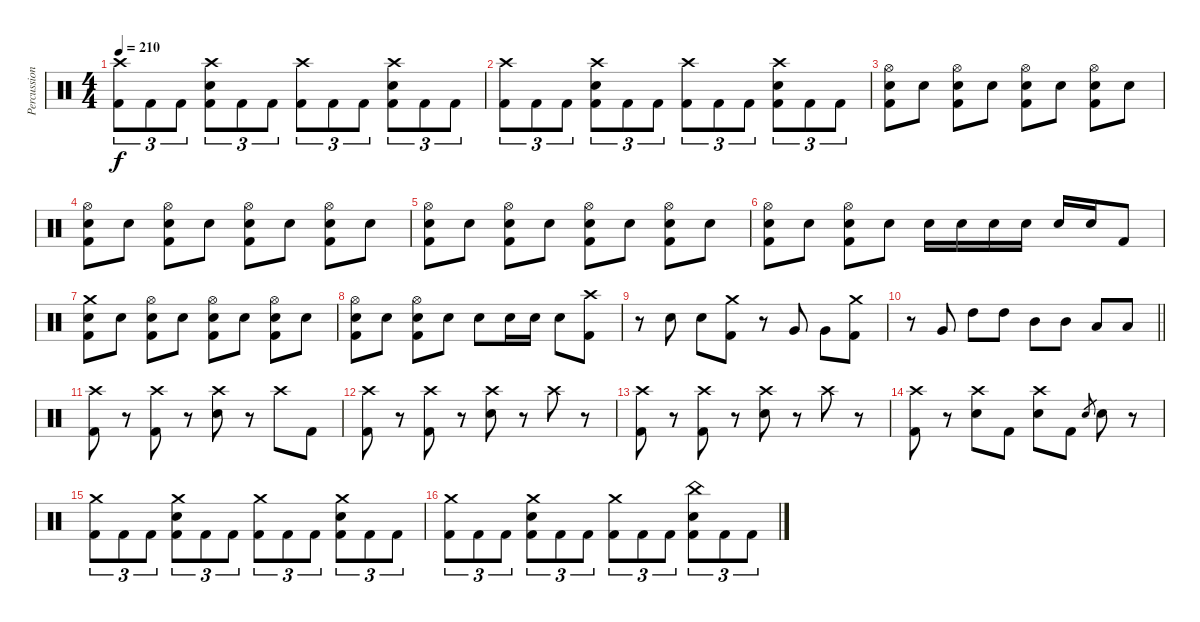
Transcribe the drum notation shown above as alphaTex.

\track ("Percussion" "Percussion") {instrument percussion}
\staff {score}
\articulation defaults
\ts (4 4)
\tempo 210
\clef neutral
\ks c
("Crash high (hit)" "Kick (hit) 2").8{tu (3 2) dy f} "Kick (hit) 2".8{tu (3 2)} "Kick (hit) 2".8{tu (3 2)} ("Crash high (hit)" "Snare (hit) 2" "Kick (hit) 2").8{tu (3 2)} "Kick (hit) 2".8{tu (3 2)} "Kick (hit) 2".8{tu (3 2)} ("Crash high (hit)" "Kick (hit) 2").8{tu (3 2)} "Kick (hit) 2".8{tu (3 2)} "Kick (hit) 2".8{tu (3 2)} ("Crash high (hit)" "Snare (hit) 2" "Kick (hit) 2").8{tu (3 2)} "Kick (hit) 2".8{tu (3 2)} "Kick (hit) 2".8{tu (3 2)} |
("Crash high (hit)" "Kick (hit) 2").8{tu (3 2)} "Kick (hit) 2".8{tu (3 2)} "Kick (hit) 2".8{tu (3 2)} ("Crash high (hit)" "Snare (hit) 2" "Kick (hit) 2").8{tu (3 2)} "Kick (hit) 2".8{tu (3 2)} "Kick (hit) 2".8{tu (3 2)} ("Crash high (hit)" "Kick (hit) 2").8{tu (3 2)} "Kick (hit) 2".8{tu (3 2)} "Kick (hit) 2".8{tu (3 2)} ("Crash high (hit)" "Snare (hit) 2" "Kick (hit) 2").8{tu (3 2)} "Kick (hit) 2".8{tu (3 2)} "Kick (hit) 2".8{tu (3 2)} |
("Hi-Hat (open)" "Snare (hit) 2" "Kick (hit) 2").8 "Snare (hit) 2".8 ("Hi-Hat (open)" "Snare (hit) 2" "Kick (hit) 2").8 "Snare (hit) 2".8 ("Hi-Hat (open)" "Snare (hit) 2" "Kick (hit) 2").8 "Snare (hit) 2".8 ("Hi-Hat (open)" "Snare (hit) 2" "Kick (hit) 2").8 "Snare (hit) 2".8 |
("Hi-Hat (open)" "Snare (hit) 2" "Kick (hit) 2").8 "Snare (hit) 2".8 ("Hi-Hat (open)" "Snare (hit) 2" "Kick (hit) 2").8 "Snare (hit) 2".8 ("Hi-Hat (open)" "Snare (hit) 2" "Kick (hit) 2").8 "Snare (hit) 2".8 ("Hi-Hat (open)" "Snare (hit) 2" "Kick (hit) 2").8 "Snare (hit) 2".8 |
("Hi-Hat (open)" "Snare (hit) 2" "Kick (hit) 2").8 "Snare (hit) 2".8 ("Hi-Hat (open)" "Snare (hit) 2" "Kick (hit) 2").8 "Snare (hit) 2".8 ("Hi-Hat (open)" "Snare (hit) 2" "Kick (hit) 2").8 "Snare (hit) 2".8 ("Hi-Hat (open)" "Snare (hit) 2" "Kick (hit) 2").8 "Snare (hit) 2".8 |
("Hi-Hat (open)" "Snare (hit) 2" "Kick (hit) 2").8 "Snare (hit) 2".8 ("Hi-Hat (open)" "Snare (hit) 2" "Kick (hit) 2").8 "Snare (hit) 2".8 "Snare (hit) 2".16 "Snare (hit) 2".16 "Snare (hit) 2".16 "Snare (hit) 2".16 "Snare (hit) 2".16 "Snare (hit) 2".16 "Kick (hit) 2".8 |
("Crash medium (hit)" "Snare (hit) 2" "Kick (hit) 2").8 "Snare (hit) 2".8 ("Hi-Hat (open)" "Snare (hit) 2" "Kick (hit) 2").8 "Snare (hit) 2".8 ("Hi-Hat (open)" "Snare (hit) 2" "Kick (hit) 2").8 "Snare (hit) 2".8 ("Hi-Hat (open)" "Snare (hit) 2" "Kick (hit) 2").8 "Snare (hit) 2".8 |
("Hi-Hat (open)" "Snare (hit) 2" "Kick (hit) 2").8 "Snare (hit) 2".8 ("Hi-Hat (open)" "Snare (hit) 2" "Kick (hit) 2").8 "Snare (hit) 2".8 "Snare (hit) 2".8 "Snare (hit) 2".16 "Snare (hit) 2".16 "Snare (hit) 2".8 ("Crash high (hit)" "Kick (hit) 2").8 |
r.8 "Snare (hit) 2".8 "Snare (hit) 2".8 ("Crash medium (hit)" "Kick (hit) 2").8 r.8 "Very Low Tom (hit)".8 "Very Low Tom (hit)".8 ("Crash medium (hit)" "Kick (hit) 2").8 |
\barLineRight lightlight
r.8 "Very Low Tom (hit)".8 "High Tom (hit)".8 "High Tom (hit)".8 "Mid Tom (hit)".8 "Mid Tom (hit)".8 "Low Tom (hit)".8 "Low Tom (hit)".8 |
\section ("" "")
("Crash high (hit)" "Kick (hit) 2").8 r.8 ("Crash high (hit)" "Kick (hit) 2").8 r.8 ("Crash high (hit)" "Snare (hit) 2").8 r.8 "Crash high (hit)".8 "Kick (hit) 2".8 |
("Crash high (hit)" "Kick (hit) 2").8 r.8 ("Crash high (hit)" "Kick (hit) 2").8 r.8 ("Crash high (hit)" "Snare (hit) 2").8 r.8 "Crash high (hit)".8 r.8 |
("Crash high (hit)" "Kick (hit) 2").8 r.8 ("Crash high (hit)" "Kick (hit) 2").8 r.8 ("Crash high (hit)" "Snare (hit) 2").8 r.8 "Crash high (hit)".8 r.8 |
("Crash high (hit)" "Kick (hit) 2").8 r.8 ("Crash high (hit)" "Snare (hit) 2").8 "Kick (hit) 2".8 ("Crash high (hit)" "Snare (hit) 2").8 "Kick (hit) 2".8 "Snare (hit) 2".8{gr} "Snare (hit) 2".8 r.8 |
("Crash medium (hit)" "Kick (hit) 2").8{tu (3 2)} "Kick (hit) 2".8{tu (3 2)} "Kick (hit) 2".8{tu (3 2)} ("Crash medium (hit)" "Snare (hit) 2" "Kick (hit) 2").8{tu (3 2)} "Kick (hit) 2".8{tu (3 2)} "Kick (hit) 2".8{tu (3 2)} ("Crash medium (hit)" "Kick (hit) 2").8{tu (3 2)} "Kick (hit) 2".8{tu (3 2)} "Kick (hit) 2".8{tu (3 2)} ("Crash medium (hit)" "Snare (hit) 2" "Kick (hit) 2").8{tu (3 2)} "Kick (hit) 2".8{tu (3 2)} "Kick (hit) 2".8{tu (3 2)} |
("Crash medium (hit)" "Kick (hit) 2").8{tu (3 2)} "Kick (hit) 2".8{tu (3 2)} "Kick (hit) 2".8{tu (3 2)} ("Crash medium (hit)" "Snare (hit) 2" "Kick (hit) 2").8{tu (3 2)} "Kick (hit) 2".8{tu (3 2)} "Kick (hit) 2".8{tu (3 2)} ("Crash medium (hit)" "Kick (hit) 2").8{tu (3 2)} "Kick (hit) 2".8{tu (3 2)} "Kick (hit) 2".8{tu (3 2)} ("China (hit)" "Snare (hit) 2" "Kick (hit) 2").8{tu (3 2)} "Kick (hit) 2".8{tu (3 2)} "Kick (hit) 2".8{tu (3 2)}
